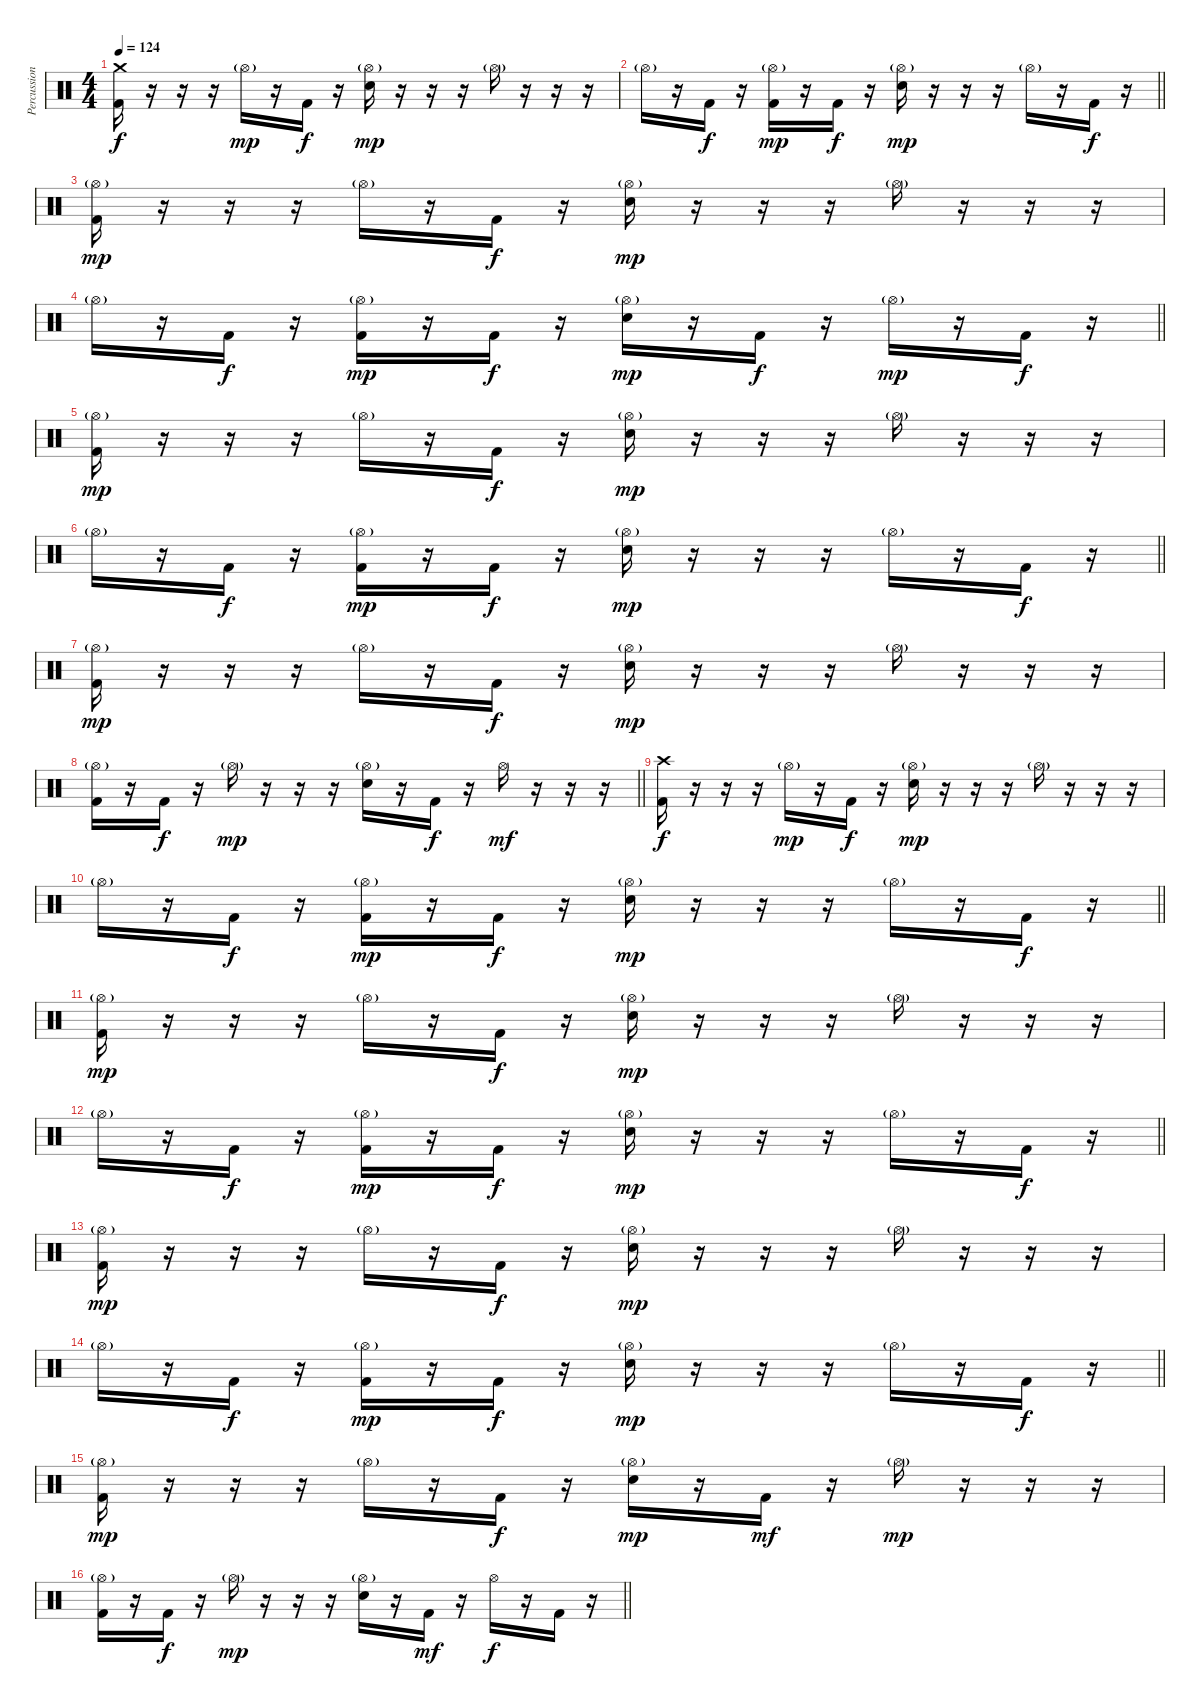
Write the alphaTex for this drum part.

\track ("Percussion" "Percussion") {instrument percussion}
\staff {score}
\articulation defaults
\ts (4 4)
\section ("" "")
\tempo 124
\clef neutral
\ks c
("Kick (hit) 2" "Crash medium (hit)").16{dy f} r.16 r.16 r.16 "Hi-Hat (open)"{g}.16{dy mp} r.16 "Kick (hit) 2".16{dy f} r.16 ("Electric Snare (hit)" "Hi-Hat (open)"{g}).16{dy mp} r.16 r.16 r.16 "Hi-Hat (open)"{g}.16 r.16 r.16 r.16 |
\barLineRight lightlight "Hi-Hat (open)"{g}.16
r.16 "Kick (hit) 2".16{dy f} r.16 ("Kick (hit) 2" "Hi-Hat (open)"{g}).16{dy mp} r.16 "Kick (hit) 2".16{dy f} r.16 ("Electric Snare (hit)" "Hi-Hat (open)"{g}).16{dy mp} r.16 r.16 r.16 "Hi-Hat (open)"{g}.16 r.16 "Kick (hit) 2".16{dy f} r.16 |
("Kick (hit) 2" "Hi-Hat (open)"{g}).16{dy mp} r.16 r.16 r.16 "Hi-Hat (open)"{g}.16 r.16 "Kick (hit) 2".16{dy f} r.16 ("Electric Snare (hit)" "Hi-Hat (open)"{g}).16{dy mp} r.16 r.16 r.16 "Hi-Hat (open)"{g}.16 r.16 r.16 r.16 |
\barLineRight lightlight "Hi-Hat (open)"{g}.16
r.16 "Kick (hit) 2".16{dy f} r.16 ("Kick (hit) 2" "Hi-Hat (open)"{g}).16{dy mp} r.16 "Kick (hit) 2".16{dy f} r.16 ("Electric Snare (hit)" "Hi-Hat (open)"{g}).16{dy mp} r.16 "Kick (hit) 2".16{dy f} r.16 "Hi-Hat (open)"{g}.16{dy mp} r.16 "Kick (hit) 2".16{dy f} r.16 |
("Kick (hit) 2" "Hi-Hat (open)"{g}).16{dy mp} r.16 r.16 r.16 "Hi-Hat (open)"{g}.16 r.16 "Kick (hit) 2".16{dy f} r.16 ("Electric Snare (hit)" "Hi-Hat (open)"{g}).16{dy mp} r.16 r.16 r.16 "Hi-Hat (open)"{g}.16 r.16 r.16 r.16 |
\barLineRight lightlight "Hi-Hat (open)"{g}.16
r.16 "Kick (hit) 2".16{dy f} r.16 ("Kick (hit) 2" "Hi-Hat (open)"{g}).16{dy mp} r.16 "Kick (hit) 2".16{dy f} r.16 ("Electric Snare (hit)" "Hi-Hat (open)"{g}).16{dy mp} r.16 r.16 r.16 "Hi-Hat (open)"{g}.16 r.16 "Kick (hit) 2".16{dy f} r.16 |
("Kick (hit) 2" "Hi-Hat (open)"{g}).16{dy mp} r.16 r.16 r.16 "Hi-Hat (open)"{g}.16 r.16 "Kick (hit) 2".16{dy f} r.16 ("Electric Snare (hit)" "Hi-Hat (open)"{g}).16{dy mp} r.16 r.16 r.16 "Hi-Hat (open)"{g}.16 r.16 r.16 r.16 |
\barLineRight lightlight
("Kick (hit) 2" "Hi-Hat (open)"{g}).16 r.16 "Kick (hit) 2".16{dy f} r.16 "Hi-Hat (open)"{g}.16{dy mp} r.16 r.16 r.16 ("Electric Snare (hit)" "Hi-Hat (open)"{g}).16 r.16 "Kick (hit) 2".16{dy f} r.16 "Hi-Hat (open)".16{dy mf} r.16 r.16 r.16 |
("Kick (hit) 2" "Crash high (hit)").16{dy f} r.16 r.16 r.16 "Hi-Hat (open)"{g}.16{dy mp} r.16 "Kick (hit) 2".16{dy f} r.16 ("Electric Snare (hit)" "Hi-Hat (open)"{g}).16{dy mp} r.16 r.16 r.16 "Hi-Hat (open)"{g}.16 r.16 r.16 r.16 |
\barLineRight lightlight "Hi-Hat (open)"{g}.16
r.16 "Kick (hit) 2".16{dy f} r.16 ("Kick (hit) 2" "Hi-Hat (open)"{g}).16{dy mp} r.16 "Kick (hit) 2".16{dy f} r.16 ("Electric Snare (hit)" "Hi-Hat (open)"{g}).16{dy mp} r.16 r.16 r.16 "Hi-Hat (open)"{g}.16 r.16 "Kick (hit) 2".16{dy f} r.16 |
("Kick (hit) 2" "Hi-Hat (open)"{g}).16{dy mp} r.16 r.16 r.16 "Hi-Hat (open)"{g}.16 r.16 "Kick (hit) 2".16{dy f} r.16 ("Electric Snare (hit)" "Hi-Hat (open)"{g}).16{dy mp} r.16 r.16 r.16 "Hi-Hat (open)"{g}.16 r.16 r.16 r.16 |
\barLineRight lightlight "Hi-Hat (open)"{g}.16
r.16 "Kick (hit) 2".16{dy f} r.16 ("Kick (hit) 2" "Hi-Hat (open)"{g}).16{dy mp} r.16 "Kick (hit) 2".16{dy f} r.16 ("Electric Snare (hit)" "Hi-Hat (open)"{g}).16{dy mp} r.16 r.16 r.16 "Hi-Hat (open)"{g}.16 r.16 "Kick (hit) 2".16{dy f} r.16 |
("Kick (hit) 2" "Hi-Hat (open)"{g}).16{dy mp} r.16 r.16 r.16 "Hi-Hat (open)"{g}.16 r.16 "Kick (hit) 2".16{dy f} r.16 ("Electric Snare (hit)" "Hi-Hat (open)"{g}).16{dy mp} r.16 r.16 r.16 "Hi-Hat (open)"{g}.16 r.16 r.16 r.16 |
\barLineRight lightlight "Hi-Hat (open)"{g}.16
r.16 "Kick (hit) 2".16{dy f} r.16 ("Kick (hit) 2" "Hi-Hat (open)"{g}).16{dy mp} r.16 "Kick (hit) 2".16{dy f} r.16 ("Electric Snare (hit)" "Hi-Hat (open)"{g}).16{dy mp} r.16 r.16 r.16 "Hi-Hat (open)"{g}.16 r.16 "Kick (hit) 2".16{dy f} r.16 |
("Kick (hit) 2" "Hi-Hat (open)"{g}).16{dy mp} r.16 r.16 r.16 "Hi-Hat (open)"{g}.16 r.16 "Kick (hit) 2".16{dy f} r.16 ("Electric Snare (hit)" "Hi-Hat (open)"{g}).16{dy mp} r.16 "Kick (hit) 2".16{dy mf} r.16 "Hi-Hat (open)"{g}.16{dy mp} r.16 r.16 r.16 |
\barLineRight lightlight
("Kick (hit) 2" "Hi-Hat (open)"{g}).16 r.16 "Kick (hit) 2".16{dy f} r.16 "Hi-Hat (open)"{g}.16{dy mp} r.16 r.16 r.16 ("Electric Snare (hit)" "Hi-Hat (open)"{g}).16 r.16 "Kick (hit) 2".16{dy mf} r.16 "Hi-Hat (open)".16{dy f} r.16 "Kick (hit) 2".16 r.16
